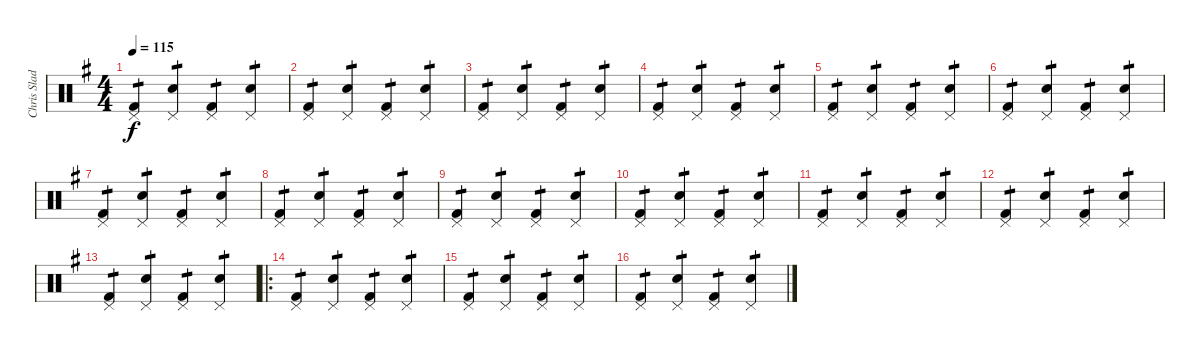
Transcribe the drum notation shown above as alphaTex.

\track ("Chris Slade" "Chris Slad") {instrument percussion}
\staff {score}
\articulation defaults
\ts (4 4)
\tempo 115
\clef neutral
\ks g
("Kick (hit) 2" "Pedal Hi-Hat (hit)").4{tp 1 dy f} ("Snare (hit) 2" "Pedal Hi-Hat (hit)").4{tp 1} ("Kick (hit) 2" "Pedal Hi-Hat (hit)").4{tp 1} ("Snare (hit) 2" "Pedal Hi-Hat (hit)").4{tp 1} |
("Kick (hit) 2" "Pedal Hi-Hat (hit)").4{tp 1} ("Snare (hit) 2" "Pedal Hi-Hat (hit)").4{tp 1} ("Kick (hit) 2" "Pedal Hi-Hat (hit)").4{tp 1} ("Snare (hit) 2" "Pedal Hi-Hat (hit)").4{tp 1} |
("Kick (hit) 2" "Pedal Hi-Hat (hit)").4{tp 1} ("Snare (hit) 2" "Pedal Hi-Hat (hit)").4{tp 1} ("Kick (hit) 2" "Pedal Hi-Hat (hit)").4{tp 1} ("Snare (hit) 2" "Pedal Hi-Hat (hit)").4{tp 1} |
("Kick (hit) 2" "Pedal Hi-Hat (hit)").4{tp 1} ("Snare (hit) 2" "Pedal Hi-Hat (hit)").4{tp 1} ("Kick (hit) 2" "Pedal Hi-Hat (hit)").4{tp 1} ("Snare (hit) 2" "Pedal Hi-Hat (hit)").4{tp 1} |
("Kick (hit) 2" "Pedal Hi-Hat (hit)").4{tp 1} ("Snare (hit) 2" "Pedal Hi-Hat (hit)").4{tp 1} ("Kick (hit) 2" "Pedal Hi-Hat (hit)").4{tp 1} ("Snare (hit) 2" "Pedal Hi-Hat (hit)").4{tp 1} |
("Kick (hit) 2" "Pedal Hi-Hat (hit)").4{tp 1} ("Snare (hit) 2" "Pedal Hi-Hat (hit)").4{tp 1} ("Kick (hit) 2" "Pedal Hi-Hat (hit)").4{tp 1} ("Snare (hit) 2" "Pedal Hi-Hat (hit)").4{tp 1} |
("Kick (hit) 2" "Pedal Hi-Hat (hit)").4{tp 1} ("Snare (hit) 2" "Pedal Hi-Hat (hit)").4{tp 1} ("Kick (hit) 2" "Pedal Hi-Hat (hit)").4{tp 1} ("Snare (hit) 2" "Pedal Hi-Hat (hit)").4{tp 1} |
("Kick (hit) 2" "Pedal Hi-Hat (hit)").4{tp 1} ("Snare (hit) 2" "Pedal Hi-Hat (hit)").4{tp 1} ("Kick (hit) 2" "Pedal Hi-Hat (hit)").4{tp 1} ("Snare (hit) 2" "Pedal Hi-Hat (hit)").4{tp 1} |
("Kick (hit) 2" "Pedal Hi-Hat (hit)").4{tp 1} ("Snare (hit) 2" "Pedal Hi-Hat (hit)").4{tp 1} ("Kick (hit) 2" "Pedal Hi-Hat (hit)").4{tp 1} ("Snare (hit) 2" "Pedal Hi-Hat (hit)").4{tp 1} |
("Kick (hit) 2" "Pedal Hi-Hat (hit)").4{tp 1} ("Snare (hit) 2" "Pedal Hi-Hat (hit)").4{tp 1} ("Kick (hit) 2" "Pedal Hi-Hat (hit)").4{tp 1} ("Snare (hit) 2" "Pedal Hi-Hat (hit)").4{tp 1} |
("Kick (hit) 2" "Pedal Hi-Hat (hit)").4{tp 1} ("Snare (hit) 2" "Pedal Hi-Hat (hit)").4{tp 1} ("Kick (hit) 2" "Pedal Hi-Hat (hit)").4{tp 1} ("Snare (hit) 2" "Pedal Hi-Hat (hit)").4{tp 1} |
("Kick (hit) 2" "Pedal Hi-Hat (hit)").4{tp 1} ("Snare (hit) 2" "Pedal Hi-Hat (hit)").4{tp 1} ("Kick (hit) 2" "Pedal Hi-Hat (hit)").4{tp 1} ("Snare (hit) 2" "Pedal Hi-Hat (hit)").4{tp 1} |
("Kick (hit) 2" "Pedal Hi-Hat (hit)").4{tp 1} ("Snare (hit) 2" "Pedal Hi-Hat (hit)").4{tp 1} ("Kick (hit) 2" "Pedal Hi-Hat (hit)").4{tp 1} ("Snare (hit) 2" "Pedal Hi-Hat (hit)").4{tp 1} |
\ro
("Kick (hit) 2" "Pedal Hi-Hat (hit)").4{tp 1} ("Snare (hit) 2" "Pedal Hi-Hat (hit)").4{tp 1} ("Kick (hit) 2" "Pedal Hi-Hat (hit)").4{tp 1} ("Snare (hit) 2" "Pedal Hi-Hat (hit)").4{tp 1} |
("Kick (hit) 2" "Pedal Hi-Hat (hit)").4{tp 1} ("Snare (hit) 2" "Pedal Hi-Hat (hit)").4{tp 1} ("Kick (hit) 2" "Pedal Hi-Hat (hit)").4{tp 1} ("Snare (hit) 2" "Pedal Hi-Hat (hit)").4{tp 1} |
("Kick (hit) 2" "Pedal Hi-Hat (hit)").4{tp 1} ("Snare (hit) 2" "Pedal Hi-Hat (hit)").4{tp 1} ("Kick (hit) 2" "Pedal Hi-Hat (hit)").4{tp 1} ("Snare (hit) 2" "Pedal Hi-Hat (hit)").4{tp 1}
